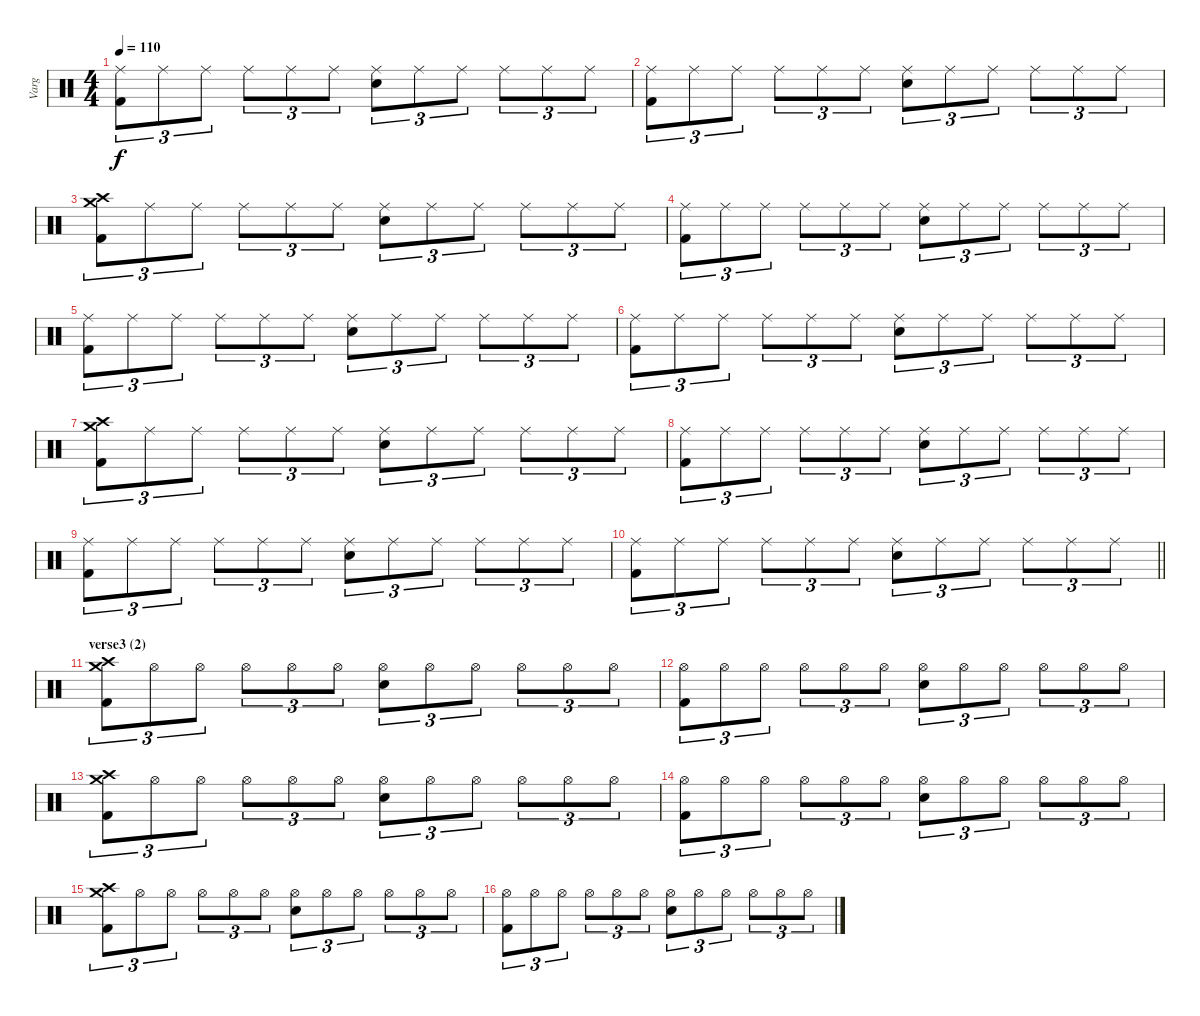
\track ("Varg" "Varg") {instrument percussion}
\staff {score}
\articulation defaults
\ts (4 4)
\tempo 110
\clef neutral
\ks c
("Ride (middle)" "Kick (hit) 2").8{tu (3 2) dy f} "Ride (middle)".8{tu (3 2)} "Ride (middle)".8{tu (3 2)} "Ride (middle)".8{tu (3 2)} "Ride (middle)".8{tu (3 2)} "Ride (middle)".8{tu (3 2)} ("Ride (middle)" "Snare (hit) 2").8{tu (3 2)} "Ride (middle)".8{tu (3 2)} "Ride (middle)".8{tu (3 2)} "Ride (middle)".8{tu (3 2)} "Ride (middle)".8{tu (3 2)} "Ride (middle)".8{tu (3 2)} |
("Ride (middle)" "Kick (hit) 2").8{tu (3 2)} "Ride (middle)".8{tu (3 2)} "Ride (middle)".8{tu (3 2)} "Ride (middle)".8{tu (3 2)} "Ride (middle)".8{tu (3 2)} "Ride (middle)".8{tu (3 2)} ("Ride (middle)" "Snare (hit) 2").8{tu (3 2)} "Ride (middle)".8{tu (3 2)} "Ride (middle)".8{tu (3 2)} "Ride (middle)".8{tu (3 2)} "Ride (middle)".8{tu (3 2)} "Ride (middle)".8{tu (3 2)} |
("Crash high (hit)" "Crash medium (hit)" "Kick (hit) 2").8{tu (3 2)} "Ride (middle)".8{tu (3 2)} "Ride (middle)".8{tu (3 2)} "Ride (middle)".8{tu (3 2)} "Ride (middle)".8{tu (3 2)} "Ride (middle)".8{tu (3 2)} ("Ride (middle)" "Snare (hit) 2").8{tu (3 2)} "Ride (middle)".8{tu (3 2)} "Ride (middle)".8{tu (3 2)} "Ride (middle)".8{tu (3 2)} "Ride (middle)".8{tu (3 2)} "Ride (middle)".8{tu (3 2)} |
("Ride (middle)" "Kick (hit) 2").8{tu (3 2)} "Ride (middle)".8{tu (3 2)} "Ride (middle)".8{tu (3 2)} "Ride (middle)".8{tu (3 2)} "Ride (middle)".8{tu (3 2)} "Ride (middle)".8{tu (3 2)} ("Ride (middle)" "Snare (hit) 2").8{tu (3 2)} "Ride (middle)".8{tu (3 2)} "Ride (middle)".8{tu (3 2)} "Ride (middle)".8{tu (3 2)} "Ride (middle)".8{tu (3 2)} "Ride (middle)".8{tu (3 2)} |
("Ride (middle)" "Kick (hit) 2").8{tu (3 2)} "Ride (middle)".8{tu (3 2)} "Ride (middle)".8{tu (3 2)} "Ride (middle)".8{tu (3 2)} "Ride (middle)".8{tu (3 2)} "Ride (middle)".8{tu (3 2)} ("Ride (middle)" "Snare (hit) 2").8{tu (3 2)} "Ride (middle)".8{tu (3 2)} "Ride (middle)".8{tu (3 2)} "Ride (middle)".8{tu (3 2)} "Ride (middle)".8{tu (3 2)} "Ride (middle)".8{tu (3 2)} |
("Ride (middle)" "Kick (hit) 2").8{tu (3 2)} "Ride (middle)".8{tu (3 2)} "Ride (middle)".8{tu (3 2)} "Ride (middle)".8{tu (3 2)} "Ride (middle)".8{tu (3 2)} "Ride (middle)".8{tu (3 2)} ("Ride (middle)" "Snare (hit) 2").8{tu (3 2)} "Ride (middle)".8{tu (3 2)} "Ride (middle)".8{tu (3 2)} "Ride (middle)".8{tu (3 2)} "Ride (middle)".8{tu (3 2)} "Ride (middle)".8{tu (3 2)} |
("Crash high (hit)" "Crash medium (hit)" "Kick (hit) 2").8{tu (3 2)} "Ride (middle)".8{tu (3 2)} "Ride (middle)".8{tu (3 2)} "Ride (middle)".8{tu (3 2)} "Ride (middle)".8{tu (3 2)} "Ride (middle)".8{tu (3 2)} ("Ride (middle)" "Snare (hit) 2").8{tu (3 2)} "Ride (middle)".8{tu (3 2)} "Ride (middle)".8{tu (3 2)} "Ride (middle)".8{tu (3 2)} "Ride (middle)".8{tu (3 2)} "Ride (middle)".8{tu (3 2)} |
("Ride (middle)" "Kick (hit) 2").8{tu (3 2)} "Ride (middle)".8{tu (3 2)} "Ride (middle)".8{tu (3 2)} "Ride (middle)".8{tu (3 2)} "Ride (middle)".8{tu (3 2)} "Ride (middle)".8{tu (3 2)} ("Ride (middle)" "Snare (hit) 2").8{tu (3 2)} "Ride (middle)".8{tu (3 2)} "Ride (middle)".8{tu (3 2)} "Ride (middle)".8{tu (3 2)} "Ride (middle)".8{tu (3 2)} "Ride (middle)".8{tu (3 2)} |
("Ride (middle)" "Kick (hit) 2").8{tu (3 2)} "Ride (middle)".8{tu (3 2)} "Ride (middle)".8{tu (3 2)} "Ride (middle)".8{tu (3 2)} "Ride (middle)".8{tu (3 2)} "Ride (middle)".8{tu (3 2)} ("Ride (middle)" "Snare (hit) 2").8{tu (3 2)} "Ride (middle)".8{tu (3 2)} "Ride (middle)".8{tu (3 2)} "Ride (middle)".8{tu (3 2)} "Ride (middle)".8{tu (3 2)} "Ride (middle)".8{tu (3 2)} |
\barLineRight lightlight
("Ride (middle)" "Kick (hit) 2").8{tu (3 2)} "Ride (middle)".8{tu (3 2)} "Ride (middle)".8{tu (3 2)} "Ride (middle)".8{tu (3 2)} "Ride (middle)".8{tu (3 2)} "Ride (middle)".8{tu (3 2)} ("Ride (middle)" "Snare (hit) 2").8{tu (3 2)} "Ride (middle)".8{tu (3 2)} "Ride (middle)".8{tu (3 2)} "Ride (middle)".8{tu (3 2)} "Ride (middle)".8{tu (3 2)} "Ride (middle)".8{tu (3 2)} |
\section ("" "verse3 (2)")
("Crash high (hit)" "Crash medium (hit)" "Kick (hit) 2").8{tu (3 2)} "Hi-Hat (open)".8{tu (3 2)} "Hi-Hat (open)".8{tu (3 2)} "Hi-Hat (open)".8{tu (3 2)} "Hi-Hat (open)".8{tu (3 2)} "Hi-Hat (open)".8{tu (3 2)} ("Hi-Hat (open)" "Snare (hit) 2").8{tu (3 2)} "Hi-Hat (open)".8{tu (3 2)} "Hi-Hat (open)".8{tu (3 2)} "Hi-Hat (open)".8{tu (3 2)} "Hi-Hat (open)".8{tu (3 2)} "Hi-Hat (open)".8{tu (3 2)} |
("Hi-Hat (open)" "Kick (hit) 2").8{tu (3 2)} "Hi-Hat (open)".8{tu (3 2)} "Hi-Hat (open)".8{tu (3 2)} "Hi-Hat (open)".8{tu (3 2)} "Hi-Hat (open)".8{tu (3 2)} "Hi-Hat (open)".8{tu (3 2)} ("Hi-Hat (open)" "Snare (hit) 2").8{tu (3 2)} "Hi-Hat (open)".8{tu (3 2)} "Hi-Hat (open)".8{tu (3 2)} "Hi-Hat (open)".8{tu (3 2)} "Hi-Hat (open)".8{tu (3 2)} "Hi-Hat (open)".8{tu (3 2)} |
("Crash high (hit)" "Crash medium (hit)" "Kick (hit) 2").8{tu (3 2)} "Hi-Hat (open)".8{tu (3 2)} "Hi-Hat (open)".8{tu (3 2)} "Hi-Hat (open)".8{tu (3 2)} "Hi-Hat (open)".8{tu (3 2)} "Hi-Hat (open)".8{tu (3 2)} ("Hi-Hat (open)" "Snare (hit) 2").8{tu (3 2)} "Hi-Hat (open)".8{tu (3 2)} "Hi-Hat (open)".8{tu (3 2)} "Hi-Hat (open)".8{tu (3 2)} "Hi-Hat (open)".8{tu (3 2)} "Hi-Hat (open)".8{tu (3 2)} |
("Hi-Hat (open)" "Kick (hit) 2").8{tu (3 2)} "Hi-Hat (open)".8{tu (3 2)} "Hi-Hat (open)".8{tu (3 2)} "Hi-Hat (open)".8{tu (3 2)} "Hi-Hat (open)".8{tu (3 2)} "Hi-Hat (open)".8{tu (3 2)} ("Hi-Hat (open)" "Snare (hit) 2").8{tu (3 2)} "Hi-Hat (open)".8{tu (3 2)} "Hi-Hat (open)".8{tu (3 2)} "Hi-Hat (open)".8{tu (3 2)} "Hi-Hat (open)".8{tu (3 2)} "Hi-Hat (open)".8{tu (3 2)} |
("Crash high (hit)" "Crash medium (hit)" "Kick (hit) 2").8{tu (3 2)} "Hi-Hat (open)".8{tu (3 2)} "Hi-Hat (open)".8{tu (3 2)} "Hi-Hat (open)".8{tu (3 2)} "Hi-Hat (open)".8{tu (3 2)} "Hi-Hat (open)".8{tu (3 2)} ("Hi-Hat (open)" "Snare (hit) 2").8{tu (3 2)} "Hi-Hat (open)".8{tu (3 2)} "Hi-Hat (open)".8{tu (3 2)} "Hi-Hat (open)".8{tu (3 2)} "Hi-Hat (open)".8{tu (3 2)} "Hi-Hat (open)".8{tu (3 2)} |
("Hi-Hat (open)" "Kick (hit) 2").8{tu (3 2)} "Hi-Hat (open)".8{tu (3 2)} "Hi-Hat (open)".8{tu (3 2)} "Hi-Hat (open)".8{tu (3 2)} "Hi-Hat (open)".8{tu (3 2)} "Hi-Hat (open)".8{tu (3 2)} ("Hi-Hat (open)" "Snare (hit) 2").8{tu (3 2)} "Hi-Hat (open)".8{tu (3 2)} "Hi-Hat (open)".8{tu (3 2)} "Hi-Hat (open)".8{tu (3 2)} "Hi-Hat (open)".8{tu (3 2)} "Hi-Hat (open)".8{tu (3 2)}
